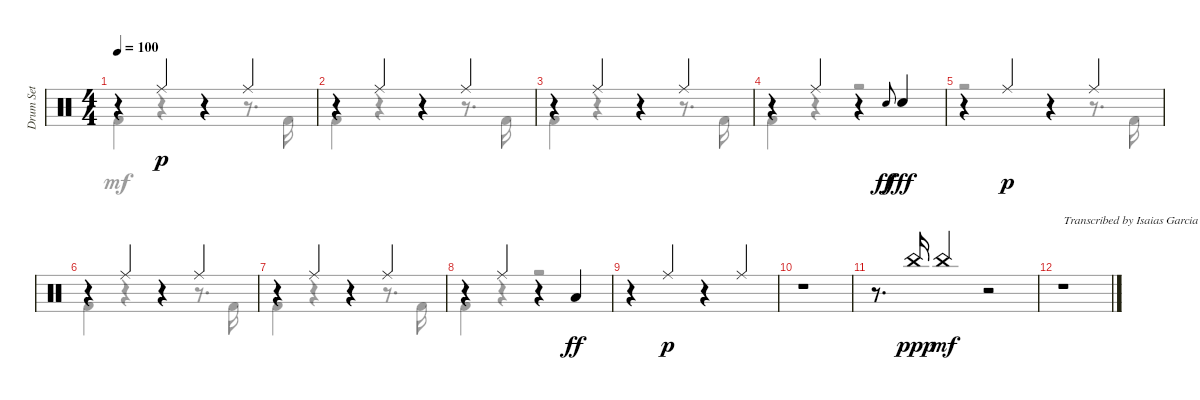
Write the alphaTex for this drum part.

\track ("Drum Set" "Drum Set") {instrument percussion}
\staff {score}
\articulation defaults
\voice
\ts (4 4)
\tempo 100
\clef neutral
\ks aminor
r.4{dy p} "Ride (middle)".4 r.4 "Ride (middle)".4 |
r.4 "Ride (middle)".4 r.4 "Ride (middle)".4 |
r.4 "Ride (middle)".4 r.4 "Ride (middle)".4 |
r.4 "Ride (middle)".4 r.4 "Electric Snare (hit)".8{gr onbeat dy ff} "Electric Snare (hit)".4{dy fff} |
r.4 "Ride (middle)".4{dy p} r.4 "Ride (middle)".4 |
r.4 "Ride (middle)".4 r.4 "Ride (middle)".4 |
r.4 "Ride (middle)".4 r.4 "Ride (middle)".4 |
r.4 "Ride (middle)".4 r.4 "Low Tom (hit)".4{dy ff} |
r.4 "Ride (middle)".4{dy p beam Up} r.4 "Ride (middle)".4{beam Up} |
r.1 |
r.8{d} "China (hit)".16{dy ppp beam Up} "China (hit)".4{dy mf beam Up} r.2 |
r.1{txt "Transcribed by Isaias Garcia (TexasFury)"}
\voice
\clef neutral
\ottava regular
\simile none
\ks aminor "Kick (hit) 2".4{dy mf}
r.4 r.4 r.8{d} "Kick (hit) 2".16 |
"Kick (hit) 2".4 r.4 r.4 r.8{d} "Kick (hit) 2".16 |
"Kick (hit) 2".4 r.4 r.4 r.8{d} "Kick (hit) 2".16 |
"Kick (hit) 2".4 r.4 r.2 |
r.2 r.4 r.8{d} "Kick (hit) 2".16 |
"Kick (hit) 2".4 r.4 r.4 r.8{d} "Kick (hit) 2".16 |
"Kick (hit) 2".4 r.4 r.4 r.8{d} "Kick (hit) 2".16 |
"Kick (hit) 2".4 r.4 r.2 |
|
|
|
